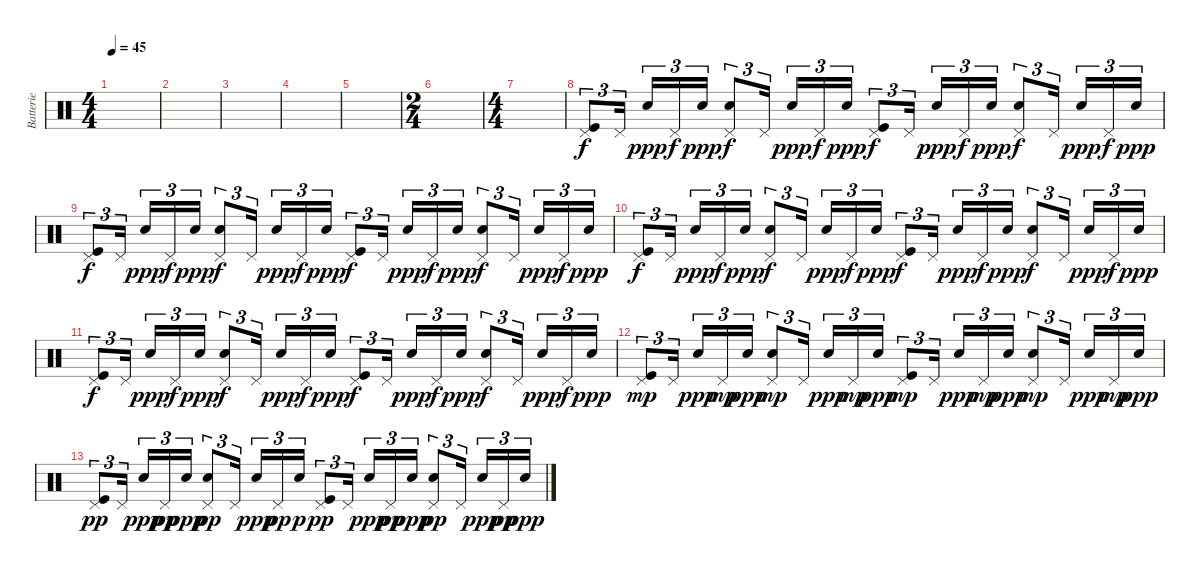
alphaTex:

\track ("Batterie" "Batterie") {instrument percussion}
\staff {score}
\articulation defaults
\ts (4 4)
\tempo 45
\clef neutral
\ks c
|
|
|
|
|
\ts (2 4)
|
\ts (4 4)
|
("Pedal Hi-Hat (hit)" "Kick (hit)").8{tu (3 2)} "Pedal Hi-Hat (hit)".16{tu (3 2)} "Electric Snare (hit)".16{tu (3 2) dy ppp} "Pedal Hi-Hat (hit)".16{tu (3 2) dy f} "Electric Snare (hit)".16{tu (3 2) dy ppp} ("Pedal Hi-Hat (hit)" "Electric Snare (hit)").8{tu (3 2) dy f} "Pedal Hi-Hat (hit)".16{tu (3 2)} "Electric Snare (hit)".16{tu (3 2) dy ppp} "Pedal Hi-Hat (hit)".16{tu (3 2) dy f} "Electric Snare (hit)".16{tu (3 2) dy ppp} ("Pedal Hi-Hat (hit)" "Kick (hit)").8{tu (3 2) dy f} "Pedal Hi-Hat (hit)".16{tu (3 2)} "Electric Snare (hit)".16{tu (3 2) dy ppp} "Pedal Hi-Hat (hit)".16{tu (3 2) dy f} "Electric Snare (hit)".16{tu (3 2) dy ppp} ("Pedal Hi-Hat (hit)" "Electric Snare (hit)").8{tu (3 2) dy f} "Pedal Hi-Hat (hit)".16{tu (3 2)} "Electric Snare (hit)".16{tu (3 2) dy ppp} "Pedal Hi-Hat (hit)".16{tu (3 2) dy f} "Electric Snare (hit)".16{tu (3 2) dy ppp} |
("Pedal Hi-Hat (hit)" "Kick (hit)").8{tu (3 2) dy f} "Pedal Hi-Hat (hit)".16{tu (3 2)} "Electric Snare (hit)".16{tu (3 2) dy ppp} "Pedal Hi-Hat (hit)".16{tu (3 2) dy f} "Electric Snare (hit)".16{tu (3 2) dy ppp} ("Pedal Hi-Hat (hit)" "Electric Snare (hit)").8{tu (3 2) dy f} "Pedal Hi-Hat (hit)".16{tu (3 2)} "Electric Snare (hit)".16{tu (3 2) dy ppp} "Pedal Hi-Hat (hit)".16{tu (3 2) dy f} "Electric Snare (hit)".16{tu (3 2) dy ppp} ("Pedal Hi-Hat (hit)" "Kick (hit)").8{tu (3 2) dy f} "Pedal Hi-Hat (hit)".16{tu (3 2)} "Electric Snare (hit)".16{tu (3 2) dy ppp} "Pedal Hi-Hat (hit)".16{tu (3 2) dy f} "Electric Snare (hit)".16{tu (3 2) dy ppp} ("Pedal Hi-Hat (hit)" "Electric Snare (hit)").8{tu (3 2) dy f} "Pedal Hi-Hat (hit)".16{tu (3 2)} "Electric Snare (hit)".16{tu (3 2) dy ppp} "Pedal Hi-Hat (hit)".16{tu (3 2) dy f} "Electric Snare (hit)".16{tu (3 2) dy ppp} |
("Pedal Hi-Hat (hit)" "Kick (hit)").8{tu (3 2) dy f} "Pedal Hi-Hat (hit)".16{tu (3 2)} "Electric Snare (hit)".16{tu (3 2) dy ppp} "Pedal Hi-Hat (hit)".16{tu (3 2) dy f} "Electric Snare (hit)".16{tu (3 2) dy ppp} ("Pedal Hi-Hat (hit)" "Electric Snare (hit)").8{tu (3 2) dy f} "Pedal Hi-Hat (hit)".16{tu (3 2)} "Electric Snare (hit)".16{tu (3 2) dy ppp} "Pedal Hi-Hat (hit)".16{tu (3 2) dy f} "Electric Snare (hit)".16{tu (3 2) dy ppp} ("Pedal Hi-Hat (hit)" "Kick (hit)").8{tu (3 2) dy f} "Pedal Hi-Hat (hit)".16{tu (3 2)} "Electric Snare (hit)".16{tu (3 2) dy ppp} "Pedal Hi-Hat (hit)".16{tu (3 2) dy f} "Electric Snare (hit)".16{tu (3 2) dy ppp} ("Pedal Hi-Hat (hit)" "Electric Snare (hit)").8{tu (3 2) dy f} "Pedal Hi-Hat (hit)".16{tu (3 2)} "Electric Snare (hit)".16{tu (3 2) dy ppp} "Pedal Hi-Hat (hit)".16{tu (3 2) dy f} "Electric Snare (hit)".16{tu (3 2) dy ppp} |
("Pedal Hi-Hat (hit)" "Kick (hit)").8{tu (3 2) dy f} "Pedal Hi-Hat (hit)".16{tu (3 2)} "Electric Snare (hit)".16{tu (3 2) dy ppp} "Pedal Hi-Hat (hit)".16{tu (3 2) dy f} "Electric Snare (hit)".16{tu (3 2) dy ppp} ("Pedal Hi-Hat (hit)" "Electric Snare (hit)").8{tu (3 2) dy f} "Pedal Hi-Hat (hit)".16{tu (3 2)} "Electric Snare (hit)".16{tu (3 2) dy ppp} "Pedal Hi-Hat (hit)".16{tu (3 2) dy f} "Electric Snare (hit)".16{tu (3 2) dy ppp} ("Pedal Hi-Hat (hit)" "Kick (hit)").8{tu (3 2) dy f} "Pedal Hi-Hat (hit)".16{tu (3 2)} "Electric Snare (hit)".16{tu (3 2) dy ppp} "Pedal Hi-Hat (hit)".16{tu (3 2) dy f} "Electric Snare (hit)".16{tu (3 2) dy ppp} ("Pedal Hi-Hat (hit)" "Electric Snare (hit)").8{tu (3 2) dy f} "Pedal Hi-Hat (hit)".16{tu (3 2)} "Electric Snare (hit)".16{tu (3 2) dy ppp} "Pedal Hi-Hat (hit)".16{tu (3 2) dy f} "Electric Snare (hit)".16{tu (3 2) dy ppp} |
("Pedal Hi-Hat (hit)" "Kick (hit)").8{tu (3 2) dy mp} "Pedal Hi-Hat (hit)".16{tu (3 2)} "Electric Snare (hit)".16{tu (3 2) dy ppp} "Pedal Hi-Hat (hit)".16{tu (3 2) dy mp} "Electric Snare (hit)".16{tu (3 2) dy ppp} ("Pedal Hi-Hat (hit)" "Electric Snare (hit)").8{tu (3 2) dy mp} "Pedal Hi-Hat (hit)".16{tu (3 2)} "Electric Snare (hit)".16{tu (3 2) dy ppp} "Pedal Hi-Hat (hit)".16{tu (3 2) dy mp} "Electric Snare (hit)".16{tu (3 2) dy ppp} ("Pedal Hi-Hat (hit)" "Kick (hit)").8{tu (3 2) dy mp} "Pedal Hi-Hat (hit)".16{tu (3 2)} "Electric Snare (hit)".16{tu (3 2) dy ppp} "Pedal Hi-Hat (hit)".16{tu (3 2) dy mp} "Electric Snare (hit)".16{tu (3 2) dy ppp} ("Pedal Hi-Hat (hit)" "Electric Snare (hit)").8{tu (3 2) dy mp} "Pedal Hi-Hat (hit)".16{tu (3 2)} "Electric Snare (hit)".16{tu (3 2) dy ppp} "Pedal Hi-Hat (hit)".16{tu (3 2) dy mp} "Electric Snare (hit)".16{tu (3 2) dy ppp} |
("Pedal Hi-Hat (hit)" "Kick (hit)").8{tu (3 2) dy pp} "Pedal Hi-Hat (hit)".16{tu (3 2)} "Electric Snare (hit)".16{tu (3 2) dy ppp} "Pedal Hi-Hat (hit)".16{tu (3 2) dy pp} "Electric Snare (hit)".16{tu (3 2) dy ppp} ("Pedal Hi-Hat (hit)" "Electric Snare (hit)").8{tu (3 2) dy pp} "Pedal Hi-Hat (hit)".16{tu (3 2)} "Electric Snare (hit)".16{tu (3 2) dy ppp} "Pedal Hi-Hat (hit)".16{tu (3 2) dy pp} "Electric Snare (hit)".16{tu (3 2) dy p} ("Pedal Hi-Hat (hit)" "Kick (hit)").8{tu (3 2) dy pp} "Pedal Hi-Hat (hit)".16{tu (3 2)} "Electric Snare (hit)".16{tu (3 2) dy ppp} "Pedal Hi-Hat (hit)".16{tu (3 2) dy pp} "Electric Snare (hit)".16{tu (3 2) dy ppp} ("Pedal Hi-Hat (hit)" "Electric Snare (hit)").8{tu (3 2) dy pp} "Pedal Hi-Hat (hit)".16{tu (3 2)} "Electric Snare (hit)".16{tu (3 2) dy ppp} "Pedal Hi-Hat (hit)".16{tu (3 2) dy pp} "Electric Snare (hit)".16{tu (3 2) dy ppp}
